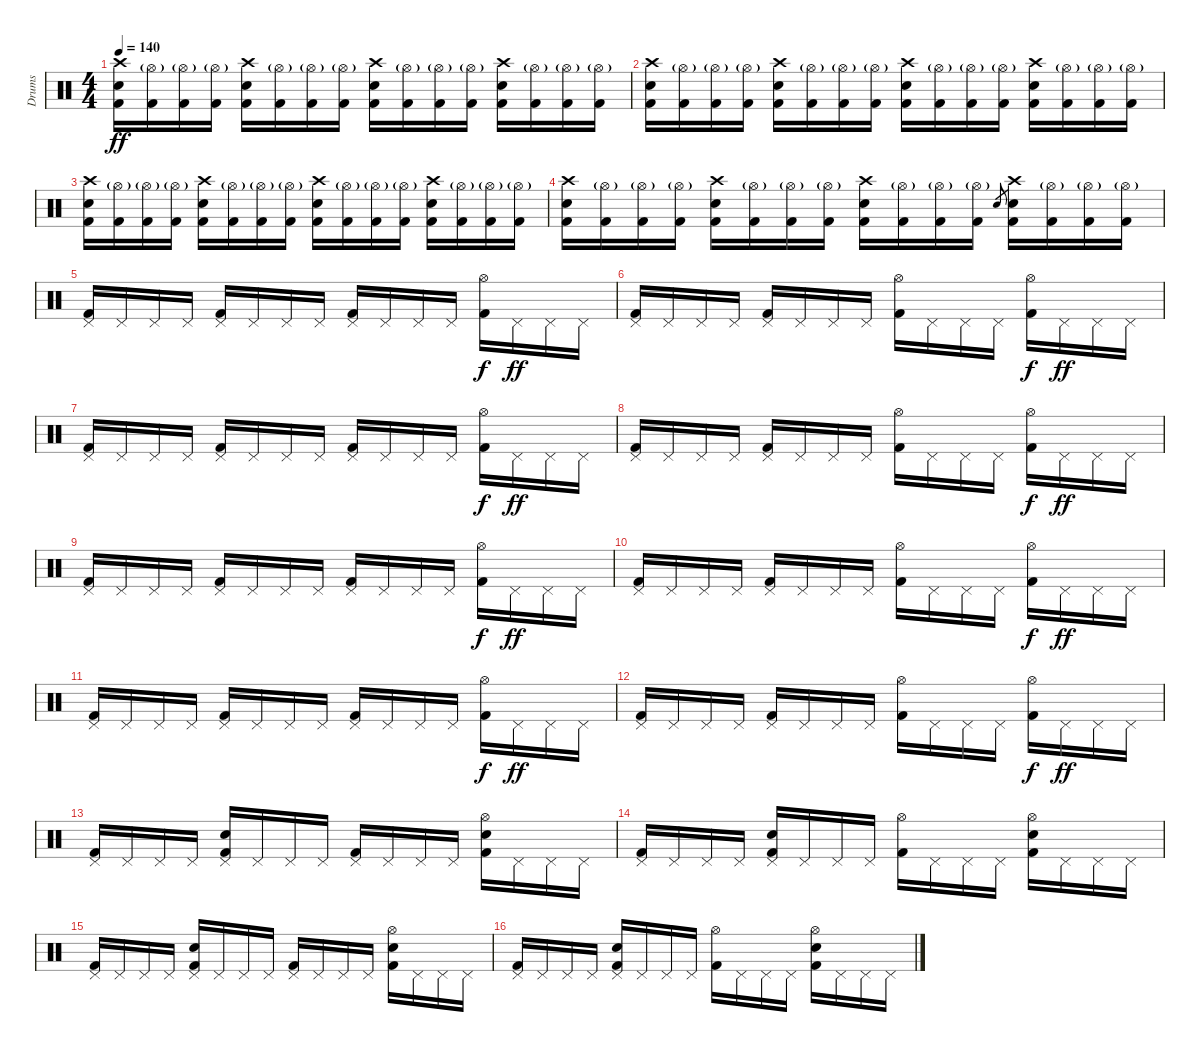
\track ("Drums" "Drums") {instrument percussion}
\staff {score}
\articulation defaults
\ts (4 4)
\tempo 140
\clef neutral
\ks c
("Crash high (hit)" "Kick (hit) 2" "Electric Snare (hit)").16{dy ff} ("Hi-Hat (open)"{g} "Kick (hit) 2").16 ("Hi-Hat (open)"{g} "Kick (hit) 2").16 ("Hi-Hat (open)"{g} "Kick (hit) 2").16 ("Crash high (hit)" "Kick (hit) 2" "Electric Snare (hit)").16 ("Hi-Hat (open)"{g} "Kick (hit) 2").16 ("Hi-Hat (open)"{g} "Kick (hit) 2").16 ("Hi-Hat (open)"{g} "Kick (hit) 2").16 ("Crash high (hit)" "Kick (hit) 2" "Electric Snare (hit)").16 ("Hi-Hat (open)"{g} "Kick (hit) 2").16 ("Hi-Hat (open)"{g} "Kick (hit) 2").16 ("Hi-Hat (open)"{g} "Kick (hit) 2").16 ("Crash high (hit)" "Kick (hit) 2" "Electric Snare (hit)").16 ("Hi-Hat (open)"{g} "Kick (hit) 2").16 ("Hi-Hat (open)"{g} "Kick (hit) 2").16 ("Hi-Hat (open)"{g} "Kick (hit) 2").16 |
("Crash high (hit)" "Kick (hit) 2" "Electric Snare (hit)").16 ("Hi-Hat (open)"{g} "Kick (hit) 2").16 ("Hi-Hat (open)"{g} "Kick (hit) 2").16 ("Hi-Hat (open)"{g} "Kick (hit) 2").16 ("Crash high (hit)" "Kick (hit) 2" "Electric Snare (hit)").16 ("Hi-Hat (open)"{g} "Kick (hit) 2").16 ("Hi-Hat (open)"{g} "Kick (hit) 2").16 ("Hi-Hat (open)"{g} "Kick (hit) 2").16 ("Crash high (hit)" "Kick (hit) 2" "Electric Snare (hit)").16 ("Hi-Hat (open)"{g} "Kick (hit) 2").16 ("Hi-Hat (open)"{g} "Kick (hit) 2").16 ("Hi-Hat (open)"{g} "Kick (hit) 2").16 ("Crash high (hit)" "Kick (hit) 2" "Electric Snare (hit)").16 ("Hi-Hat (open)"{g} "Kick (hit) 2").16 ("Hi-Hat (open)"{g} "Kick (hit) 2").16 ("Hi-Hat (open)"{g} "Kick (hit) 2").16 |
("Crash high (hit)" "Kick (hit) 2" "Electric Snare (hit)").16 ("Hi-Hat (open)"{g} "Kick (hit) 2").16 ("Hi-Hat (open)"{g} "Kick (hit) 2").16 ("Hi-Hat (open)"{g} "Kick (hit) 2").16 ("Crash high (hit)" "Kick (hit) 2" "Electric Snare (hit)").16 ("Hi-Hat (open)"{g} "Kick (hit) 2").16 ("Hi-Hat (open)"{g} "Kick (hit) 2").16 ("Hi-Hat (open)"{g} "Kick (hit) 2").16 ("Crash high (hit)" "Kick (hit) 2" "Electric Snare (hit)").16 ("Hi-Hat (open)"{g} "Kick (hit) 2").16 ("Hi-Hat (open)"{g} "Kick (hit) 2").16 ("Hi-Hat (open)"{g} "Kick (hit) 2").16 ("Crash high (hit)" "Kick (hit) 2" "Electric Snare (hit)").16 ("Hi-Hat (open)"{g} "Kick (hit) 2").16 ("Hi-Hat (open)"{g} "Kick (hit) 2").16 ("Hi-Hat (open)"{g} "Kick (hit) 2").16 |
("Crash high (hit)" "Kick (hit) 2" "Electric Snare (hit)").16 ("Hi-Hat (open)"{g} "Kick (hit) 2").16 ("Hi-Hat (open)"{g} "Kick (hit) 2").16 ("Hi-Hat (open)"{g} "Kick (hit) 2").16 ("Crash high (hit)" "Kick (hit) 2" "Electric Snare (hit)").16 ("Hi-Hat (open)"{g} "Kick (hit) 2").16 ("Hi-Hat (open)"{g} "Kick (hit) 2").16 ("Hi-Hat (open)"{g} "Kick (hit) 2").16 ("Crash high (hit)" "Kick (hit) 2" "Electric Snare (hit)").16 ("Hi-Hat (open)"{g} "Kick (hit) 2").16 ("Hi-Hat (open)"{g} "Kick (hit) 2").16 ("Hi-Hat (open)"{g} "Kick (hit) 2").16 "Electric Snare (hit)".8{gr} ("Crash high (hit)" "Kick (hit) 2" "Electric Snare (hit)").16 ("Hi-Hat (open)"{g} "Kick (hit) 2").16 ("Hi-Hat (open)"{g} "Kick (hit) 2").16 ("Hi-Hat (open)"{g} "Kick (hit) 2").16 |
("Pedal Hi-Hat (hit)" "Kick (hit) 2").16 "Pedal Hi-Hat (hit)".16 "Pedal Hi-Hat (hit)".16 "Pedal Hi-Hat (hit)".16 ("Pedal Hi-Hat (hit)" "Kick (hit) 2").16 "Pedal Hi-Hat (hit)".16 "Pedal Hi-Hat (hit)".16 "Pedal Hi-Hat (hit)".16 ("Pedal Hi-Hat (hit)" "Kick (hit) 2").16 "Pedal Hi-Hat (hit)".16 "Pedal Hi-Hat (hit)".16 "Pedal Hi-Hat (hit)".16 ("Hi-Hat (open)" "Kick (hit) 2").16{dy f} "Pedal Hi-Hat (hit)".16{dy ff} "Pedal Hi-Hat (hit)".16 "Pedal Hi-Hat (hit)".16 |
("Pedal Hi-Hat (hit)" "Kick (hit) 2").16 "Pedal Hi-Hat (hit)".16 "Pedal Hi-Hat (hit)".16 "Pedal Hi-Hat (hit)".16 ("Pedal Hi-Hat (hit)" "Kick (hit) 2").16 "Pedal Hi-Hat (hit)".16 "Pedal Hi-Hat (hit)".16 "Pedal Hi-Hat (hit)".16 ("Hi-Hat (open)" "Kick (hit) 2").16 "Pedal Hi-Hat (hit)".16 "Pedal Hi-Hat (hit)".16 "Pedal Hi-Hat (hit)".16 ("Hi-Hat (open)" "Kick (hit) 2").16{dy f} "Pedal Hi-Hat (hit)".16{dy ff} "Pedal Hi-Hat (hit)".16 "Pedal Hi-Hat (hit)".16 |
("Pedal Hi-Hat (hit)" "Kick (hit) 2").16 "Pedal Hi-Hat (hit)".16 "Pedal Hi-Hat (hit)".16 "Pedal Hi-Hat (hit)".16 ("Pedal Hi-Hat (hit)" "Kick (hit) 2").16 "Pedal Hi-Hat (hit)".16 "Pedal Hi-Hat (hit)".16 "Pedal Hi-Hat (hit)".16 ("Pedal Hi-Hat (hit)" "Kick (hit) 2").16 "Pedal Hi-Hat (hit)".16 "Pedal Hi-Hat (hit)".16 "Pedal Hi-Hat (hit)".16 ("Hi-Hat (open)" "Kick (hit) 2").16{dy f} "Pedal Hi-Hat (hit)".16{dy ff} "Pedal Hi-Hat (hit)".16 "Pedal Hi-Hat (hit)".16 |
("Pedal Hi-Hat (hit)" "Kick (hit) 2").16 "Pedal Hi-Hat (hit)".16 "Pedal Hi-Hat (hit)".16 "Pedal Hi-Hat (hit)".16 ("Pedal Hi-Hat (hit)" "Kick (hit) 2").16 "Pedal Hi-Hat (hit)".16 "Pedal Hi-Hat (hit)".16 "Pedal Hi-Hat (hit)".16 ("Hi-Hat (open)" "Kick (hit) 2").16 "Pedal Hi-Hat (hit)".16 "Pedal Hi-Hat (hit)".16 "Pedal Hi-Hat (hit)".16 ("Hi-Hat (open)" "Kick (hit) 2").16{dy f} "Pedal Hi-Hat (hit)".16{dy ff} "Pedal Hi-Hat (hit)".16 "Pedal Hi-Hat (hit)".16 |
("Pedal Hi-Hat (hit)" "Kick (hit) 2").16 "Pedal Hi-Hat (hit)".16 "Pedal Hi-Hat (hit)".16 "Pedal Hi-Hat (hit)".16 ("Pedal Hi-Hat (hit)" "Kick (hit) 2").16 "Pedal Hi-Hat (hit)".16 "Pedal Hi-Hat (hit)".16 "Pedal Hi-Hat (hit)".16 ("Pedal Hi-Hat (hit)" "Kick (hit) 2").16 "Pedal Hi-Hat (hit)".16 "Pedal Hi-Hat (hit)".16 "Pedal Hi-Hat (hit)".16 ("Hi-Hat (open)" "Kick (hit) 2").16{dy f} "Pedal Hi-Hat (hit)".16{dy ff} "Pedal Hi-Hat (hit)".16 "Pedal Hi-Hat (hit)".16 |
("Pedal Hi-Hat (hit)" "Kick (hit) 2").16 "Pedal Hi-Hat (hit)".16 "Pedal Hi-Hat (hit)".16 "Pedal Hi-Hat (hit)".16 ("Pedal Hi-Hat (hit)" "Kick (hit) 2").16 "Pedal Hi-Hat (hit)".16 "Pedal Hi-Hat (hit)".16 "Pedal Hi-Hat (hit)".16 ("Hi-Hat (open)" "Kick (hit) 2").16 "Pedal Hi-Hat (hit)".16 "Pedal Hi-Hat (hit)".16 "Pedal Hi-Hat (hit)".16 ("Hi-Hat (open)" "Kick (hit) 2").16{dy f} "Pedal Hi-Hat (hit)".16{dy ff} "Pedal Hi-Hat (hit)".16 "Pedal Hi-Hat (hit)".16 |
("Pedal Hi-Hat (hit)" "Kick (hit) 2").16 "Pedal Hi-Hat (hit)".16 "Pedal Hi-Hat (hit)".16 "Pedal Hi-Hat (hit)".16 ("Pedal Hi-Hat (hit)" "Kick (hit) 2").16 "Pedal Hi-Hat (hit)".16 "Pedal Hi-Hat (hit)".16 "Pedal Hi-Hat (hit)".16 ("Pedal Hi-Hat (hit)" "Kick (hit) 2").16 "Pedal Hi-Hat (hit)".16 "Pedal Hi-Hat (hit)".16 "Pedal Hi-Hat (hit)".16 ("Hi-Hat (open)" "Kick (hit) 2").16{dy f} "Pedal Hi-Hat (hit)".16{dy ff} "Pedal Hi-Hat (hit)".16 "Pedal Hi-Hat (hit)".16 |
("Pedal Hi-Hat (hit)" "Kick (hit) 2").16 "Pedal Hi-Hat (hit)".16 "Pedal Hi-Hat (hit)".16 "Pedal Hi-Hat (hit)".16 ("Pedal Hi-Hat (hit)" "Kick (hit) 2").16 "Pedal Hi-Hat (hit)".16 "Pedal Hi-Hat (hit)".16 "Pedal Hi-Hat (hit)".16 ("Hi-Hat (open)" "Kick (hit) 2").16 "Pedal Hi-Hat (hit)".16 "Pedal Hi-Hat (hit)".16 "Pedal Hi-Hat (hit)".16 ("Hi-Hat (open)" "Kick (hit) 2").16{dy f} "Pedal Hi-Hat (hit)".16{dy ff} "Pedal Hi-Hat (hit)".16 "Pedal Hi-Hat (hit)".16 |
("Pedal Hi-Hat (hit)" "Kick (hit) 2").16 "Pedal Hi-Hat (hit)".16 "Pedal Hi-Hat (hit)".16 "Pedal Hi-Hat (hit)".16 ("Pedal Hi-Hat (hit)" "Kick (hit) 2" "Electric Snare (hit)").16 "Pedal Hi-Hat (hit)".16 "Pedal Hi-Hat (hit)".16 "Pedal Hi-Hat (hit)".16 ("Pedal Hi-Hat (hit)" "Kick (hit) 2").16 "Pedal Hi-Hat (hit)".16 "Pedal Hi-Hat (hit)".16 "Pedal Hi-Hat (hit)".16 ("Hi-Hat (open)" "Kick (hit) 2" "Electric Snare (hit)").16 "Pedal Hi-Hat (hit)".16 "Pedal Hi-Hat (hit)".16 "Pedal Hi-Hat (hit)".16 |
("Pedal Hi-Hat (hit)" "Kick (hit) 2").16 "Pedal Hi-Hat (hit)".16 "Pedal Hi-Hat (hit)".16 "Pedal Hi-Hat (hit)".16 ("Pedal Hi-Hat (hit)" "Kick (hit) 2" "Electric Snare (hit)").16 "Pedal Hi-Hat (hit)".16 "Pedal Hi-Hat (hit)".16 "Pedal Hi-Hat (hit)".16 ("Hi-Hat (open)" "Kick (hit) 2").16 "Pedal Hi-Hat (hit)".16 "Pedal Hi-Hat (hit)".16 "Pedal Hi-Hat (hit)".16 ("Hi-Hat (open)" "Kick (hit) 2" "Electric Snare (hit)").16 "Pedal Hi-Hat (hit)".16 "Pedal Hi-Hat (hit)".16 "Pedal Hi-Hat (hit)".16 |
("Pedal Hi-Hat (hit)" "Kick (hit) 2").16 "Pedal Hi-Hat (hit)".16 "Pedal Hi-Hat (hit)".16 "Pedal Hi-Hat (hit)".16 ("Pedal Hi-Hat (hit)" "Kick (hit) 2" "Electric Snare (hit)").16 "Pedal Hi-Hat (hit)".16 "Pedal Hi-Hat (hit)".16 "Pedal Hi-Hat (hit)".16 ("Pedal Hi-Hat (hit)" "Kick (hit) 2").16 "Pedal Hi-Hat (hit)".16 "Pedal Hi-Hat (hit)".16 "Pedal Hi-Hat (hit)".16 ("Hi-Hat (open)" "Kick (hit) 2" "Electric Snare (hit)").16 "Pedal Hi-Hat (hit)".16 "Pedal Hi-Hat (hit)".16 "Pedal Hi-Hat (hit)".16 |
("Pedal Hi-Hat (hit)" "Kick (hit) 2").16 "Pedal Hi-Hat (hit)".16 "Pedal Hi-Hat (hit)".16 "Pedal Hi-Hat (hit)".16 ("Pedal Hi-Hat (hit)" "Kick (hit) 2" "Electric Snare (hit)").16 "Pedal Hi-Hat (hit)".16 "Pedal Hi-Hat (hit)".16 "Pedal Hi-Hat (hit)".16 ("Hi-Hat (open)" "Kick (hit) 2").16 "Pedal Hi-Hat (hit)".16 "Pedal Hi-Hat (hit)".16 "Pedal Hi-Hat (hit)".16 ("Hi-Hat (open)" "Kick (hit) 2" "Electric Snare (hit)").16 "Pedal Hi-Hat (hit)".16 "Pedal Hi-Hat (hit)".16 "Pedal Hi-Hat (hit)".16
